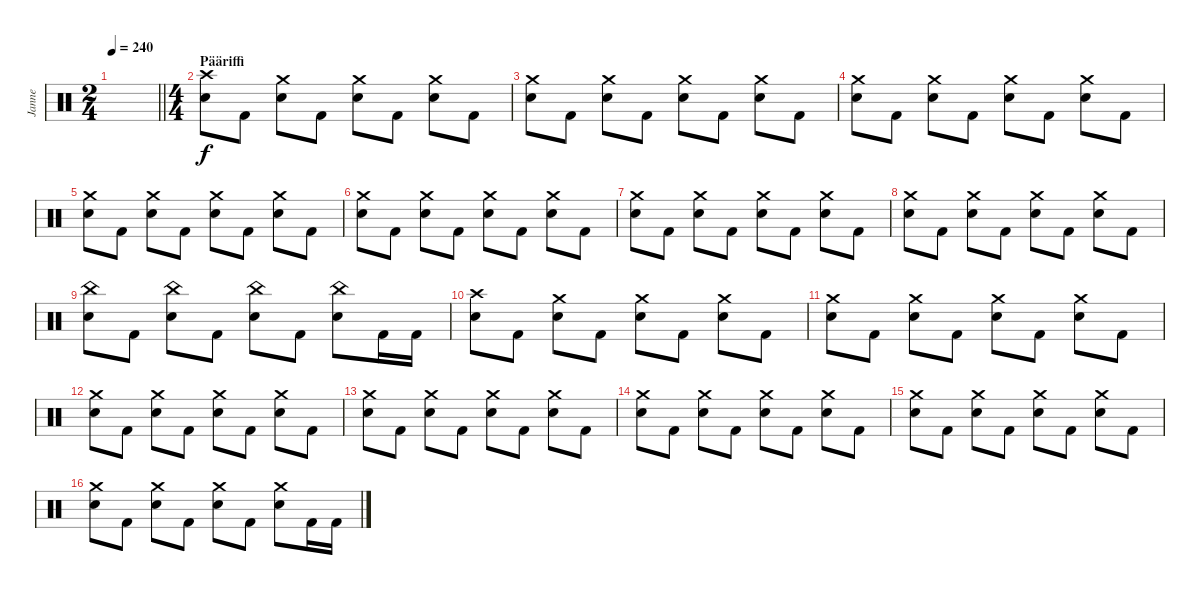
\track ("Janne" "Janne") {instrument percussion}
\staff {score}
\articulation defaults
\ts (2 4)
\tempo 240
\clef neutral
\barLineRight lightlight
\ks c
|
\ts (4 4)
\section ("" "Pääriffi")
("Crash high (hit)" "Electric Snare (hit)").8 "Kick (hit) 2".8 ("Crash medium (hit)" "Electric Snare (hit)").8 "Kick (hit) 2".8 ("Crash medium (hit)" "Electric Snare (hit)").8 "Kick (hit) 2".8 ("Crash medium (hit)" "Electric Snare (hit)").8 "Kick (hit) 2".8 |
("Crash medium (hit)" "Electric Snare (hit)").8 "Kick (hit) 2".8 ("Crash medium (hit)" "Electric Snare (hit)").8 "Kick (hit) 2".8 ("Crash medium (hit)" "Electric Snare (hit)").8 "Kick (hit) 2".8 ("Crash medium (hit)" "Electric Snare (hit)").8 "Kick (hit) 2".8 |
("Crash medium (hit)" "Electric Snare (hit)").8 "Kick (hit) 2".8 ("Crash medium (hit)" "Electric Snare (hit)").8 "Kick (hit) 2".8 ("Crash medium (hit)" "Electric Snare (hit)").8 "Kick (hit) 2".8 ("Crash medium (hit)" "Electric Snare (hit)").8 "Kick (hit) 2".8 |
("Crash medium (hit)" "Electric Snare (hit)").8 "Kick (hit) 2".8 ("Crash medium (hit)" "Electric Snare (hit)").8 "Kick (hit) 2".8 ("Crash medium (hit)" "Electric Snare (hit)").8 "Kick (hit) 2".8 ("Crash medium (hit)" "Electric Snare (hit)").8 "Kick (hit) 2".8 |
("Crash medium (hit)" "Electric Snare (hit)").8 "Kick (hit) 2".8 ("Crash medium (hit)" "Electric Snare (hit)").8 "Kick (hit) 2".8 ("Crash medium (hit)" "Electric Snare (hit)").8 "Kick (hit) 2".8 ("Crash medium (hit)" "Electric Snare (hit)").8 "Kick (hit) 2".8 |
("Crash medium (hit)" "Electric Snare (hit)").8 "Kick (hit) 2".8 ("Crash medium (hit)" "Electric Snare (hit)").8 "Kick (hit) 2".8 ("Crash medium (hit)" "Electric Snare (hit)").8 "Kick (hit) 2".8 ("Crash medium (hit)" "Electric Snare (hit)").8 "Kick (hit) 2".8 |
("Crash medium (hit)" "Electric Snare (hit)").8 "Kick (hit) 2".8 ("Crash medium (hit)" "Electric Snare (hit)").8 "Kick (hit) 2".8 ("Crash medium (hit)" "Electric Snare (hit)").8 "Kick (hit) 2".8 ("Crash medium (hit)" "Electric Snare (hit)").8 "Kick (hit) 2".8 |
("China (hit)" "Electric Snare (hit)").8 "Kick (hit) 2".8 ("China (hit)" "Electric Snare (hit)").8 "Kick (hit) 2".8 ("China (hit)" "Electric Snare (hit)").8 "Kick (hit) 2".8 ("China (hit)" "Electric Snare (hit)").8 "Kick (hit) 2".16 "Kick (hit) 2".16 |
("Crash high (hit)" "Electric Snare (hit)").8 "Kick (hit) 2".8 ("Crash medium (hit)" "Electric Snare (hit)").8 "Kick (hit) 2".8 ("Crash medium (hit)" "Electric Snare (hit)").8 "Kick (hit) 2".8 ("Crash medium (hit)" "Electric Snare (hit)").8 "Kick (hit) 2".8 |
("Crash medium (hit)" "Electric Snare (hit)").8 "Kick (hit) 2".8 ("Crash medium (hit)" "Electric Snare (hit)").8 "Kick (hit) 2".8 ("Crash medium (hit)" "Electric Snare (hit)").8 "Kick (hit) 2".8 ("Crash medium (hit)" "Electric Snare (hit)").8 "Kick (hit) 2".8 |
("Crash medium (hit)" "Electric Snare (hit)").8 "Kick (hit) 2".8 ("Crash medium (hit)" "Electric Snare (hit)").8 "Kick (hit) 2".8 ("Crash medium (hit)" "Electric Snare (hit)").8 "Kick (hit) 2".8 ("Crash medium (hit)" "Electric Snare (hit)").8 "Kick (hit) 2".8 |
("Crash medium (hit)" "Electric Snare (hit)").8 "Kick (hit) 2".8 ("Crash medium (hit)" "Electric Snare (hit)").8 "Kick (hit) 2".8 ("Crash medium (hit)" "Electric Snare (hit)").8 "Kick (hit) 2".8 ("Crash medium (hit)" "Electric Snare (hit)").8 "Kick (hit) 2".8 |
("Crash medium (hit)" "Electric Snare (hit)").8 "Kick (hit) 2".8 ("Crash medium (hit)" "Electric Snare (hit)").8 "Kick (hit) 2".8 ("Crash medium (hit)" "Electric Snare (hit)").8 "Kick (hit) 2".8 ("Crash medium (hit)" "Electric Snare (hit)").8 "Kick (hit) 2".8 |
("Crash medium (hit)" "Electric Snare (hit)").8 "Kick (hit) 2".8 ("Crash medium (hit)" "Electric Snare (hit)").8 "Kick (hit) 2".8 ("Crash medium (hit)" "Electric Snare (hit)").8 "Kick (hit) 2".8 ("Crash medium (hit)" "Electric Snare (hit)").8 "Kick (hit) 2".8 |
("Crash medium (hit)" "Electric Snare (hit)").8 "Kick (hit) 2".8 ("Crash medium (hit)" "Electric Snare (hit)").8 "Kick (hit) 2".8 ("Crash medium (hit)" "Electric Snare (hit)").8 "Kick (hit) 2".8 ("Crash medium (hit)" "Electric Snare (hit)").8 "Kick (hit) 2".16 "Kick (hit) 2".16
